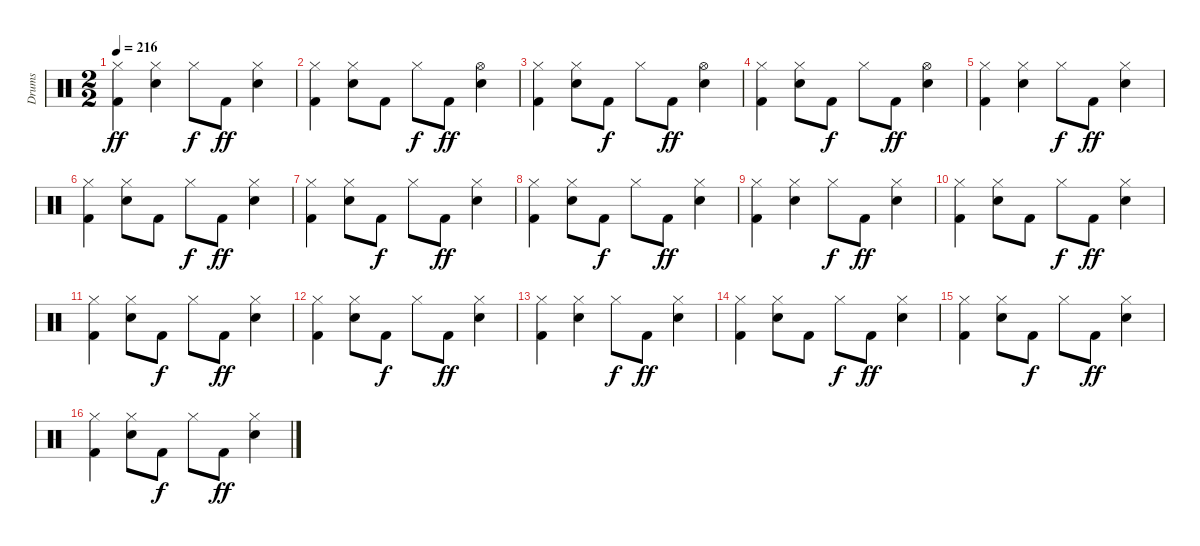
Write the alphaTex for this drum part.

\track ("Drums" "Drums") {instrument percussion}
\staff {score}
\articulation defaults
\ts (2 2)
\tempo 216
\clef neutral
\ks c
("Kick (hit) 2" "Hi-Hat (closed)").4{dy ff} ("Electric Snare (hit)" "Hi-Hat (closed)").4 "Hi-Hat (closed)".8{dy f} "Kick (hit) 2".8{dy ff} ("Electric Snare (hit)" "Hi-Hat (closed)").4 |
("Kick (hit) 2" "Hi-Hat (closed)").4 ("Electric Snare (hit)" "Hi-Hat (closed)").8 "Kick (hit) 2".8 "Hi-Hat (closed)".8{dy f} "Kick (hit) 2".8{dy ff} ("Electric Snare (hit)" "Hi-Hat (open)").4 |
("Kick (hit) 2" "Hi-Hat (closed)").4 ("Electric Snare (hit)" "Hi-Hat (closed)").8 "Kick (hit) 2".8{dy f} "Hi-Hat (closed)".8 "Kick (hit) 2".8{dy ff} ("Electric Snare (hit)" "Hi-Hat (open)").4 |
("Kick (hit) 2" "Hi-Hat (closed)").4 ("Electric Snare (hit)" "Hi-Hat (closed)").8 "Kick (hit) 2".8{dy f} "Hi-Hat (closed)".8 "Kick (hit) 2".8{dy ff} ("Electric Snare (hit)" "Hi-Hat (open)").4 |
("Kick (hit) 2" "Hi-Hat (closed)").4 ("Electric Snare (hit)" "Hi-Hat (closed)").4 "Hi-Hat (closed)".8{dy f} "Kick (hit) 2".8{dy ff} ("Electric Snare (hit)" "Hi-Hat (closed)").4 |
("Kick (hit) 2" "Hi-Hat (closed)").4 ("Electric Snare (hit)" "Hi-Hat (closed)").8 "Kick (hit) 2".8 "Hi-Hat (closed)".8{dy f} "Kick (hit) 2".8{dy ff} ("Electric Snare (hit)" "Hi-Hat (closed)").4 |
("Kick (hit) 2" "Hi-Hat (closed)").4 ("Electric Snare (hit)" "Hi-Hat (closed)").8 "Kick (hit) 2".8{dy f} "Hi-Hat (closed)".8 "Kick (hit) 2".8{dy ff} ("Electric Snare (hit)" "Hi-Hat (closed)").4 |
("Kick (hit) 2" "Hi-Hat (closed)").4 ("Electric Snare (hit)" "Hi-Hat (closed)").8 "Kick (hit) 2".8{dy f} "Hi-Hat (closed)".8 "Kick (hit) 2".8{dy ff} ("Electric Snare (hit)" "Hi-Hat (closed)").4 |
("Kick (hit) 2" "Hi-Hat (closed)").4 ("Electric Snare (hit)" "Hi-Hat (closed)").4 "Hi-Hat (closed)".8{dy f} "Kick (hit) 2".8{dy ff} ("Electric Snare (hit)" "Hi-Hat (closed)").4 |
("Kick (hit) 2" "Hi-Hat (closed)").4 ("Electric Snare (hit)" "Hi-Hat (closed)").8 "Kick (hit) 2".8 "Hi-Hat (closed)".8{dy f} "Kick (hit) 2".8{dy ff} ("Electric Snare (hit)" "Hi-Hat (closed)").4 |
("Kick (hit) 2" "Hi-Hat (closed)").4 ("Electric Snare (hit)" "Hi-Hat (closed)").8 "Kick (hit) 2".8{dy f} "Hi-Hat (closed)".8 "Kick (hit) 2".8{dy ff} ("Electric Snare (hit)" "Hi-Hat (closed)").4 |
("Kick (hit) 2" "Hi-Hat (closed)").4 ("Electric Snare (hit)" "Hi-Hat (closed)").8 "Kick (hit) 2".8{dy f} "Hi-Hat (closed)".8 "Kick (hit) 2".8{dy ff} ("Electric Snare (hit)" "Hi-Hat (closed)").4 |
("Kick (hit) 2" "Hi-Hat (closed)").4 ("Electric Snare (hit)" "Hi-Hat (closed)").4 "Hi-Hat (closed)".8{dy f} "Kick (hit) 2".8{dy ff} ("Electric Snare (hit)" "Hi-Hat (closed)").4 |
("Kick (hit) 2" "Hi-Hat (closed)").4 ("Electric Snare (hit)" "Hi-Hat (closed)").8 "Kick (hit) 2".8 "Hi-Hat (closed)".8{dy f} "Kick (hit) 2".8{dy ff} ("Electric Snare (hit)" "Hi-Hat (closed)").4 |
("Kick (hit) 2" "Hi-Hat (closed)").4 ("Electric Snare (hit)" "Hi-Hat (closed)").8 "Kick (hit) 2".8{dy f} "Hi-Hat (closed)".8 "Kick (hit) 2".8{dy ff} ("Electric Snare (hit)" "Hi-Hat (closed)").4 |
("Kick (hit) 2" "Hi-Hat (closed)").4 ("Electric Snare (hit)" "Hi-Hat (closed)").8 "Kick (hit) 2".8{dy f} "Hi-Hat (closed)".8 "Kick (hit) 2".8{dy ff} ("Electric Snare (hit)" "Hi-Hat (closed)").4
